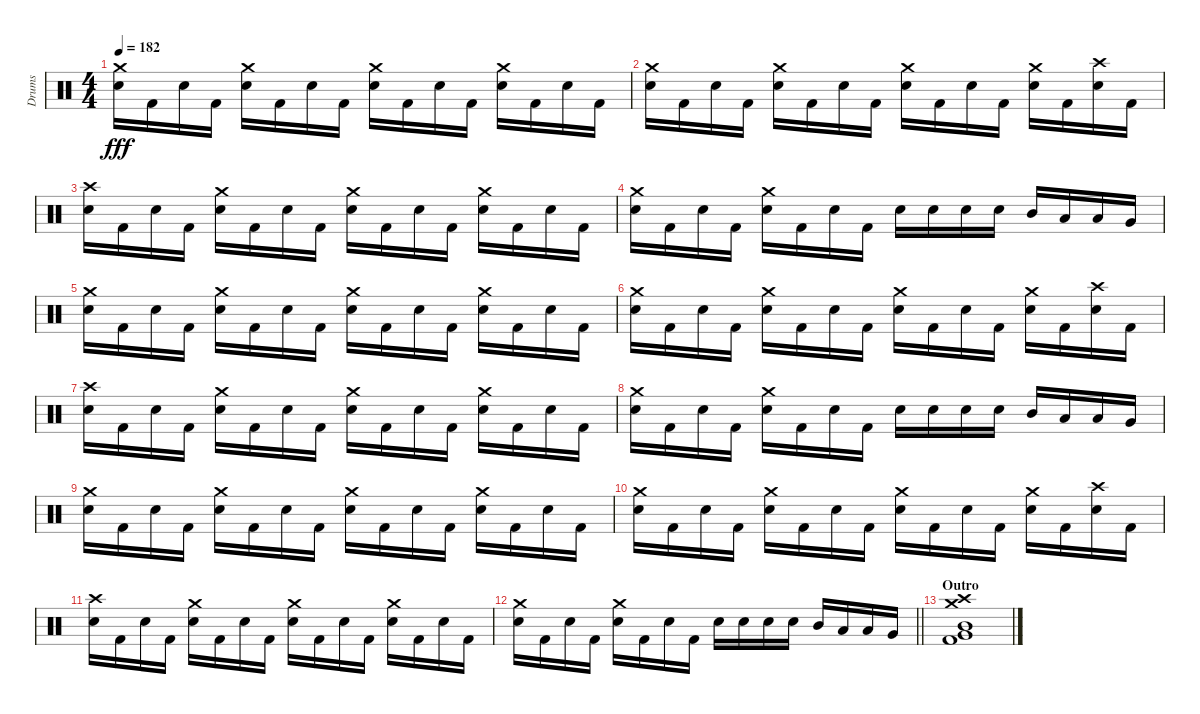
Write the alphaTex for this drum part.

\track ("Drums" "Drums") {instrument percussion}
\staff {score}
\articulation defaults
\ts (4 4)
\tempo 182
\clef neutral
\ks c
("Crash medium (hit)" "Snare (hit) 2").16{dy fff} "Kick (hit) 2".16 "Snare (hit) 2".16 "Kick (hit) 2".16 ("Crash medium (hit)" "Snare (hit) 2").16 "Kick (hit) 2".16 "Snare (hit) 2".16 "Kick (hit) 2".16 ("Crash medium (hit)" "Snare (hit) 2").16 "Kick (hit) 2".16 "Snare (hit) 2".16 "Kick (hit) 2".16 ("Crash medium (hit)" "Snare (hit) 2").16 "Kick (hit) 2".16 "Snare (hit) 2".16 "Kick (hit) 2".16 |
("Crash medium (hit)" "Snare (hit) 2").16 "Kick (hit) 2".16 "Snare (hit) 2".16 "Kick (hit) 2".16 ("Crash medium (hit)" "Snare (hit) 2").16 "Kick (hit) 2".16 "Snare (hit) 2".16 "Kick (hit) 2".16 ("Crash medium (hit)" "Snare (hit) 2").16 "Kick (hit) 2".16 "Snare (hit) 2".16 "Kick (hit) 2".16 ("Crash medium (hit)" "Snare (hit) 2").16 "Kick (hit) 2".16 ("Crash high (hit)" "Snare (hit) 2").16 "Kick (hit) 2".16 |
("Crash high (hit)" "Snare (hit) 2").16 "Kick (hit) 2".16 "Snare (hit) 2".16 "Kick (hit) 2".16 ("Crash medium (hit)" "Snare (hit) 2").16 "Kick (hit) 2".16 "Snare (hit) 2".16 "Kick (hit) 2".16 ("Crash medium (hit)" "Snare (hit) 2").16 "Kick (hit) 2".16 "Snare (hit) 2".16 "Kick (hit) 2".16 ("Crash medium (hit)" "Snare (hit) 2").16 "Kick (hit) 2".16 "Snare (hit) 2".16 "Kick (hit) 2".16 |
("Crash medium (hit)" "Snare (hit) 2").16 "Kick (hit) 2".16 "Snare (hit) 2".16 "Kick (hit) 2".16 ("Crash medium (hit)" "Snare (hit) 2").16 "Kick (hit) 2".16 "Snare (hit) 2".16 "Kick (hit) 2".16 "Snare (hit) 2".16 "Snare (hit) 2".16 "Snare (hit) 2".16 "Snare (hit) 2".16 "Mid Tom (hit)".16 "Low Tom (hit)".16 "Low Tom (hit)".16 "Very Low Tom (hit)".16 |
("Crash medium (hit)" "Snare (hit) 2").16 "Kick (hit) 2".16 "Snare (hit) 2".16 "Kick (hit) 2".16 ("Crash medium (hit)" "Snare (hit) 2").16 "Kick (hit) 2".16 "Snare (hit) 2".16 "Kick (hit) 2".16 ("Crash medium (hit)" "Snare (hit) 2").16 "Kick (hit) 2".16 "Snare (hit) 2".16 "Kick (hit) 2".16 ("Crash medium (hit)" "Snare (hit) 2").16 "Kick (hit) 2".16 "Snare (hit) 2".16 "Kick (hit) 2".16 |
("Crash medium (hit)" "Snare (hit) 2").16 "Kick (hit) 2".16 "Snare (hit) 2".16 "Kick (hit) 2".16 ("Crash medium (hit)" "Snare (hit) 2").16 "Kick (hit) 2".16 "Snare (hit) 2".16 "Kick (hit) 2".16 ("Crash medium (hit)" "Snare (hit) 2").16 "Kick (hit) 2".16 "Snare (hit) 2".16 "Kick (hit) 2".16 ("Crash medium (hit)" "Snare (hit) 2").16 "Kick (hit) 2".16 ("Crash high (hit)" "Snare (hit) 2").16 "Kick (hit) 2".16 |
("Crash high (hit)" "Snare (hit) 2").16 "Kick (hit) 2".16 "Snare (hit) 2".16 "Kick (hit) 2".16 ("Crash medium (hit)" "Snare (hit) 2").16 "Kick (hit) 2".16 "Snare (hit) 2".16 "Kick (hit) 2".16 ("Crash medium (hit)" "Snare (hit) 2").16 "Kick (hit) 2".16 "Snare (hit) 2".16 "Kick (hit) 2".16 ("Crash medium (hit)" "Snare (hit) 2").16 "Kick (hit) 2".16 "Snare (hit) 2".16 "Kick (hit) 2".16 |
("Crash medium (hit)" "Snare (hit) 2").16 "Kick (hit) 2".16 "Snare (hit) 2".16 "Kick (hit) 2".16 ("Crash medium (hit)" "Snare (hit) 2").16 "Kick (hit) 2".16 "Snare (hit) 2".16 "Kick (hit) 2".16 "Snare (hit) 2".16 "Snare (hit) 2".16 "Snare (hit) 2".16 "Snare (hit) 2".16 "Mid Tom (hit)".16 "Low Tom (hit)".16 "Low Tom (hit)".16 "Very Low Tom (hit)".16 |
("Crash medium (hit)" "Snare (hit) 2").16 "Kick (hit) 2".16 "Snare (hit) 2".16 "Kick (hit) 2".16 ("Crash medium (hit)" "Snare (hit) 2").16 "Kick (hit) 2".16 "Snare (hit) 2".16 "Kick (hit) 2".16 ("Crash medium (hit)" "Snare (hit) 2").16 "Kick (hit) 2".16 "Snare (hit) 2".16 "Kick (hit) 2".16 ("Crash medium (hit)" "Snare (hit) 2").16 "Kick (hit) 2".16 "Snare (hit) 2".16 "Kick (hit) 2".16 |
("Crash medium (hit)" "Snare (hit) 2").16 "Kick (hit) 2".16 "Snare (hit) 2".16 "Kick (hit) 2".16 ("Crash medium (hit)" "Snare (hit) 2").16 "Kick (hit) 2".16 "Snare (hit) 2".16 "Kick (hit) 2".16 ("Crash medium (hit)" "Snare (hit) 2").16 "Kick (hit) 2".16 "Snare (hit) 2".16 "Kick (hit) 2".16 ("Crash medium (hit)" "Snare (hit) 2").16 "Kick (hit) 2".16 ("Crash high (hit)" "Snare (hit) 2").16 "Kick (hit) 2".16 |
("Crash high (hit)" "Snare (hit) 2").16 "Kick (hit) 2".16 "Snare (hit) 2".16 "Kick (hit) 2".16 ("Crash medium (hit)" "Snare (hit) 2").16 "Kick (hit) 2".16 "Snare (hit) 2".16 "Kick (hit) 2".16 ("Crash medium (hit)" "Snare (hit) 2").16 "Kick (hit) 2".16 "Snare (hit) 2".16 "Kick (hit) 2".16 ("Crash medium (hit)" "Snare (hit) 2").16 "Kick (hit) 2".16 "Snare (hit) 2".16 "Kick (hit) 2".16 |
\barLineRight lightlight
("Crash medium (hit)" "Snare (hit) 2").16 "Kick (hit) 2".16 "Snare (hit) 2".16 "Kick (hit) 2".16 ("Crash medium (hit)" "Snare (hit) 2").16 "Kick (hit) 2".16 "Snare (hit) 2".16 "Kick (hit) 2".16 "Snare (hit) 2".16 "Snare (hit) 2".16 "Snare (hit) 2".16 "Snare (hit) 2".16 "Mid Tom (hit)".16 "Low Tom (hit)".16 "Low Tom (hit)".16 "Very Low Tom (hit)".16 |
\section ("" "Outro")
("Crash high (hit)" "Crash medium (hit)" "Kick (hit) 2" "Very Low Tom (hit)" "Mid Tom (hit)").1
